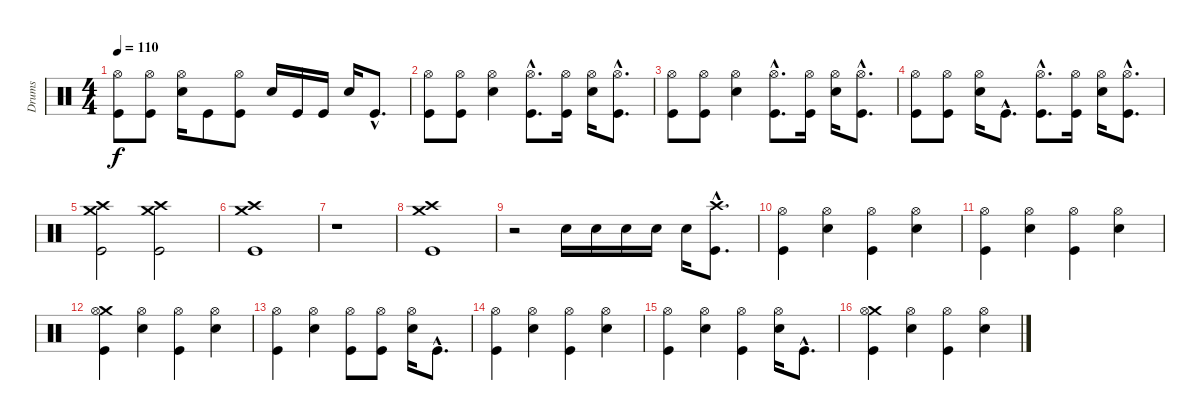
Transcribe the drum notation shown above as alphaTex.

\track ("Drums" "Drums") {instrument percussion}
\staff {score}
\articulation defaults
\ts (4 4)
\tempo 110
\clef neutral
\ks c
("Hi-Hat (open)" "Kick (hit)").8{dy f} ("Hi-Hat (open)" "Kick (hit)").8 ("Hi-Hat (open)" "Snare (hit) 2").16 "Kick (hit)".8 ("Hi-Hat (open)" "Kick (hit)").8 "Snare (hit) 2".16 "Kick (hit)".16 "Kick (hit)".16 "Snare (hit) 2".16 "Kick (hit)"{hac}.8{d} |
("Hi-Hat (open)" "Kick (hit)").8 ("Hi-Hat (open)" "Kick (hit)").8 ("Hi-Hat (open)" "Snare (hit) 2").4 ("Hi-Hat (open)"{hac} "Kick (hit)"{hac}).8{d} ("Hi-Hat (open)" "Kick (hit)").16 ("Hi-Hat (open)" "Snare (hit) 2").16 ("Hi-Hat (open)"{hac} "Kick (hit)"{hac}).8{d} |
("Hi-Hat (open)" "Kick (hit)").8 ("Hi-Hat (open)" "Kick (hit)").8 ("Hi-Hat (open)" "Snare (hit) 2").4 ("Hi-Hat (open)"{hac} "Kick (hit)"{hac}).8{d} ("Hi-Hat (open)" "Kick (hit)").16 ("Hi-Hat (open)" "Snare (hit) 2").16 ("Hi-Hat (open)"{hac} "Kick (hit)"{hac}).8{d} |
("Hi-Hat (open)" "Kick (hit)").8 ("Hi-Hat (open)" "Kick (hit)").8 ("Hi-Hat (open)" "Snare (hit) 2").16 "Kick (hit)"{hac}.8{d} ("Hi-Hat (open)"{hac} "Kick (hit)"{hac}).8{d} ("Hi-Hat (open)" "Kick (hit)").16 ("Hi-Hat (open)" "Snare (hit) 2").16 ("Hi-Hat (open)"{hac} "Kick (hit)"{hac}).8{d} |
("Crash high (hit)" "Crash medium (hit)" "Kick (hit)").2 ("Crash high (hit)" "Crash medium (hit)" "Kick (hit)").2 |
("Crash medium (hit)" "Crash high (hit)" "Kick (hit)").1 |
r.1 |
("Crash medium (hit)" "Crash high (hit)" "Kick (hit)").1 |
r.2 "Snare (hit) 2".16 "Snare (hit) 2".16 "Snare (hit) 2".16 "Snare (hit) 2".16 "Snare (hit) 2".16 ("Crash high (hit)"{hac} "Kick (hit)"{hac}).8{d} |
("Hi-Hat (open)" "Kick (hit)").4 ("Hi-Hat (open)" "Snare (hit) 2").4 ("Hi-Hat (open)" "Kick (hit)").4 ("Hi-Hat (open)" "Snare (hit) 2").4 |
("Hi-Hat (open)" "Kick (hit)").4 ("Hi-Hat (open)" "Snare (hit) 2").4 ("Hi-Hat (open)" "Kick (hit)").4 ("Hi-Hat (open)" "Snare (hit) 2").4 |
("Crash medium (hit)" "Hi-Hat (open)" "Kick (hit)").4 ("Hi-Hat (open)" "Snare (hit) 2").4 ("Hi-Hat (open)" "Kick (hit)").4 ("Hi-Hat (open)" "Snare (hit) 2").4 |
("Hi-Hat (open)" "Kick (hit)").4 ("Hi-Hat (open)" "Snare (hit) 2").4 ("Hi-Hat (open)" "Kick (hit)").8 ("Hi-Hat (open)" "Kick (hit)").8 ("Hi-Hat (open)" "Snare (hit) 2").16 "Kick (hit)"{hac}.8{d} |
("Hi-Hat (open)" "Kick (hit)").4 ("Hi-Hat (open)" "Snare (hit) 2").4 ("Hi-Hat (open)" "Kick (hit)").4 ("Hi-Hat (open)" "Snare (hit) 2").4 |
("Hi-Hat (open)" "Kick (hit)").4 ("Hi-Hat (open)" "Snare (hit) 2").4 ("Hi-Hat (open)" "Kick (hit)").4 ("Hi-Hat (open)" "Snare (hit) 2").16 "Kick (hit)"{hac}.8{d} |
("Crash medium (hit)" "Hi-Hat (open)" "Kick (hit)").4 ("Hi-Hat (open)" "Snare (hit) 2").4 ("Hi-Hat (open)" "Kick (hit)").4 ("Hi-Hat (open)" "Snare (hit) 2").4
